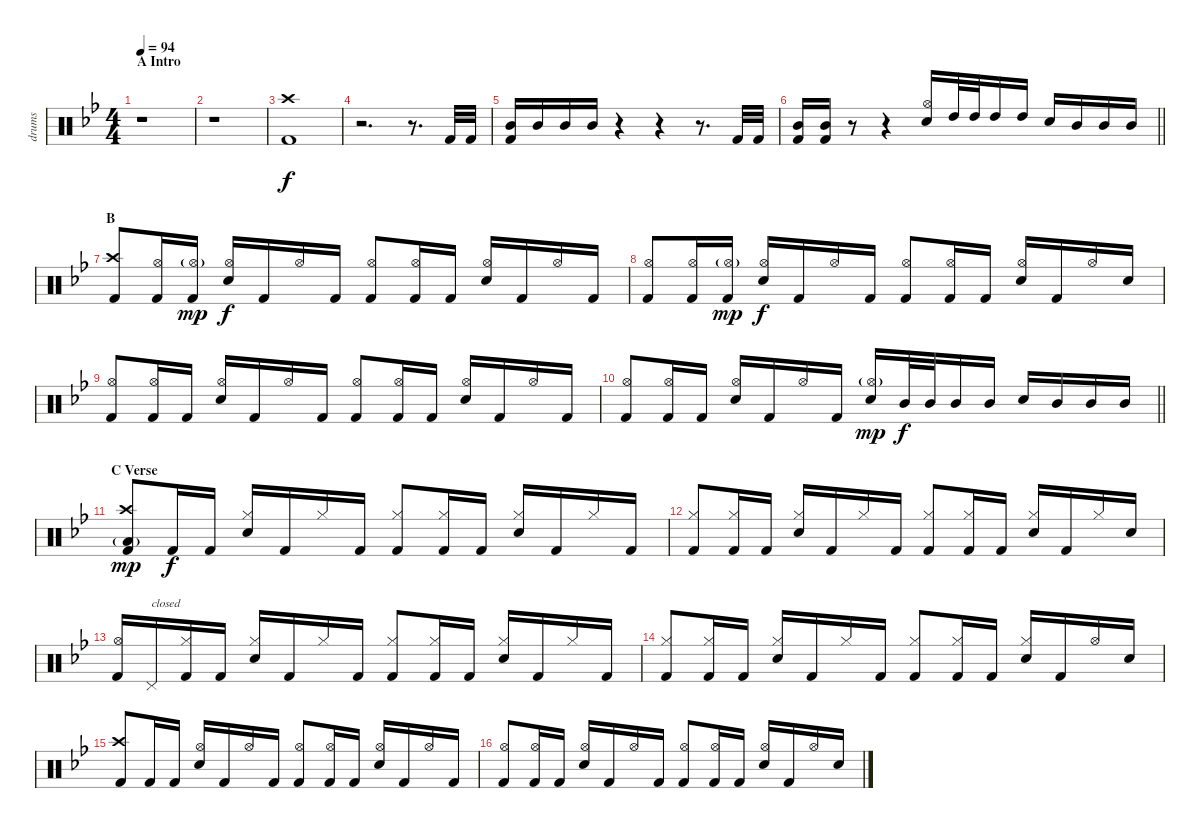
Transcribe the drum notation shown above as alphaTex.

\track ("drums" "drums") {instrument percussion}
\staff {score}
\articulation defaults
\ts (4 4)
\section ("" "A Intro")
\tempo 94
\clef neutral
\ks gminor
r.1{dy f} |
r.1 |
("Crash high (hit)" "Kick (hit) 2").1 |
r.2{d} r.8{d} "Kick (hit) 2".32 "Kick (hit) 2".32 |
("Mid Tom (hit)" "Kick (hit) 2").16{beam Up} "Mid Tom (hit)".16{beam Up} "Mid Tom (hit)".16{beam Up} "Mid Tom (hit)".16{beam Up} r.4 r.4 r.8{d} "Kick (hit) 2".32 "Kick (hit) 2".32 |
\barLineRight lightlight
("Mid Tom (hit)" "Kick (hit) 2").16{beam Up} ("Mid Tom (hit)" "Kick (hit) 2").16{beam Up} r.8 r.4 ("Snare (hit) 2" "Hi-Hat (open)").16{beam Up} "High Tom (hit)".32{beam Up} "High Tom (hit)".32{beam Up} "High Tom (hit)".16{beam Up} "High Tom (hit)".16{beam Up} "Snare (hit) 2".16{beam Up} "Mid Tom (hit)".16{beam Up} "Mid Tom (hit)".16{beam Up} "Mid Tom (hit)".16{beam Up} |
\section ("" "B")
("Crash high (hit)" "Kick (hit) 2").8{beam Up} ("Hi-Hat (open)" "Kick (hit) 2").16{beam Up} ("Hi-Hat (open)"{g} "Kick (hit) 2").16{dy mp beam Up} ("Snare (hit) 2" "Hi-Hat (open)").16{dy f beam Up} "Kick (hit) 2".16{beam Up} "Hi-Hat (open)".16{beam Up} "Kick (hit) 2".16{beam Up} ("Hi-Hat (open)" "Kick (hit) 2").8{beam Up} ("Hi-Hat (open)" "Kick (hit) 2").16{beam Up} "Kick (hit) 2".16{beam Up} ("Snare (hit) 2" "Hi-Hat (open)").16{beam Up} "Kick (hit) 2".16{beam Up} "Hi-Hat (open)".16{beam Up} "Kick (hit) 2".16{beam Up} |
("Hi-Hat (open)" "Kick (hit) 2").8{beam Up} ("Hi-Hat (open)" "Kick (hit) 2").16{beam Up} ("Hi-Hat (open)"{g} "Kick (hit) 2").16{dy mp beam Up} ("Snare (hit) 2" "Hi-Hat (open)").16{dy f beam Up} "Kick (hit) 2".16{beam Up} "Hi-Hat (open)".16{beam Up} "Kick (hit) 2".16{beam Up} ("Hi-Hat (open)" "Kick (hit) 2").8{beam Up} ("Hi-Hat (open)" "Kick (hit) 2").16{beam Up} "Kick (hit) 2".16{beam Up} ("Snare (hit) 2" "Hi-Hat (open)").16{beam Up} "Kick (hit) 2".16{beam Up} "Hi-Hat (open)".16{beam Up} "Snare (hit) 2".16{beam Up} |
("Hi-Hat (open)" "Kick (hit) 2").8{beam Up} ("Hi-Hat (open)" "Kick (hit) 2").16{beam Up} "Kick (hit) 2".16{beam Up} ("Snare (hit) 2" "Hi-Hat (open)").16{beam Up} "Kick (hit) 2".16{beam Up} "Hi-Hat (open)".16{beam Up} "Kick (hit) 2".16{beam Up} ("Hi-Hat (open)" "Kick (hit) 2").8{beam Up} ("Hi-Hat (open)" "Kick (hit) 2").16{beam Up} "Kick (hit) 2".16{beam Up} ("Snare (hit) 2" "Hi-Hat (open)").16{beam Up} "Kick (hit) 2".16{beam Up} "Hi-Hat (open)".16{beam Up} "Kick (hit) 2".16{beam Up} |
\barLineRight lightlight
("Hi-Hat (open)" "Kick (hit) 2").8{beam Up} ("Hi-Hat (open)" "Kick (hit) 2").16{beam Up} "Kick (hit) 2".16{beam Up} ("Snare (hit) 2" "Hi-Hat (open)").16{beam Up} "Kick (hit) 2".16{beam Up} "Hi-Hat (open)".16{beam Up} "Kick (hit) 2".16{beam Up} ("Snare (hit) 2" "Hi-Hat (open)"{g}).16{dy mp beam Up} "Mid Tom (hit)".32{dy f beam Up} "Mid Tom (hit)".32{beam Up} "Mid Tom (hit)".16{beam Up} "Mid Tom (hit)".16{beam Up} "Snare (hit) 2".16{beam Up} "Mid Tom (hit)".16{beam Up} "Mid Tom (hit)".16{beam Up} "Mid Tom (hit)".16{beam Up} |
\section ("" "C Verse")
("Crash high (hit)" "Low Tom (hit)"{g} "Kick (hit) 2").8{dy mp beam Up} "Kick (hit) 2".16{dy f beam Up} "Kick (hit) 2".16{beam Up} ("Snare (hit) 2" "Hi-Hat (closed)").16{beam Up} "Kick (hit) 2".16{beam Up} "Hi-Hat (closed)".16{beam Up} "Kick (hit) 2".16{beam Up} ("Hi-Hat (closed)" "Kick (hit) 2").8{beam Up} ("Hi-Hat (closed)" "Kick (hit) 2").16{beam Up} "Kick (hit) 2".16{beam Up} ("Snare (hit) 2" "Hi-Hat (closed)").16{beam Up} "Kick (hit) 2".16{beam Up} "Hi-Hat (closed)".16{beam Up} "Kick (hit) 2".16{beam Up} |
("Hi-Hat (closed)" "Kick (hit) 2").8{beam Up} ("Hi-Hat (closed)" "Kick (hit) 2").16{beam Up} "Kick (hit) 2".16{beam Up} ("Snare (hit) 2" "Hi-Hat (closed)").16{beam Up} "Kick (hit) 2".16{beam Up} "Hi-Hat (closed)".16{beam Up} "Kick (hit) 2".16{beam Up} ("Hi-Hat (closed)" "Kick (hit) 2").8{beam Up} ("Hi-Hat (closed)" "Kick (hit) 2").16{beam Up} "Kick (hit) 2".16{beam Up} ("Snare (hit) 2" "Hi-Hat (closed)").16{beam Up} "Kick (hit) 2".16{beam Up} "Hi-Hat (closed)".16{beam Up} "Snare (hit) 2".16{beam Up} |
("Hi-Hat (open)" "Kick (hit) 2").16{beam Up} "Pedal Hi-Hat (hit)".16{txt "closed" beam Up} ("Hi-Hat (closed)" "Kick (hit) 2").16{beam Up} "Kick (hit) 2".16{beam Up} ("Snare (hit) 2" "Hi-Hat (closed)").16{beam Up} "Kick (hit) 2".16{beam Up} "Hi-Hat (closed)".16{beam Up} "Kick (hit) 2".16{beam Up} ("Hi-Hat (closed)" "Kick (hit) 2").8{beam Up} ("Hi-Hat (closed)" "Kick (hit) 2").16{beam Up} "Kick (hit) 2".16{beam Up} ("Snare (hit) 2" "Hi-Hat (closed)").16{beam Up} "Kick (hit) 2".16{beam Up} "Hi-Hat (closed)".16{beam Up} "Kick (hit) 2".16{beam Up} |
("Hi-Hat (closed)" "Kick (hit) 2").8{beam Up} ("Hi-Hat (closed)" "Kick (hit) 2").16{beam Up} "Kick (hit) 2".16{beam Up} ("Snare (hit) 2" "Hi-Hat (closed)").16{beam Up} "Kick (hit) 2".16{beam Up} "Hi-Hat (closed)".16{beam Up} "Kick (hit) 2".16{beam Up} ("Hi-Hat (closed)" "Kick (hit) 2").8{beam Up} ("Hi-Hat (closed)" "Kick (hit) 2").16{beam Up} "Kick (hit) 2".16{beam Up} ("Snare (hit) 2" "Hi-Hat (closed)").16{beam Up} "Kick (hit) 2".16{beam Up} "Hi-Hat (open)".16{beam Up} "Snare (hit) 2".16{beam Up} |
("Crash high (hit)" "Kick (hit) 2").8{beam Up} "Kick (hit) 2".16{beam Up} "Kick (hit) 2".16{beam Up} ("Snare (hit) 2" "Hi-Hat (open)").16{beam Up} "Kick (hit) 2".16{beam Up} "Hi-Hat (open)".16{beam Up} "Kick (hit) 2".16{beam Up} ("Hi-Hat (open)" "Kick (hit) 2").8{beam Up} ("Hi-Hat (open)" "Kick (hit) 2").16{beam Up} "Kick (hit) 2".16{beam Up} ("Snare (hit) 2" "Hi-Hat (open)").16{beam Up} "Kick (hit) 2".16{beam Up} "Hi-Hat (open)".16{beam Up} "Kick (hit) 2".16{beam Up} |
("Hi-Hat (open)" "Kick (hit) 2").8{beam Up} ("Hi-Hat (open)" "Kick (hit) 2").16{beam Up} "Kick (hit) 2".16{beam Up} ("Snare (hit) 2" "Hi-Hat (open)").16{beam Up} "Kick (hit) 2".16{beam Up} "Hi-Hat (open)".16{beam Up} "Kick (hit) 2".16{beam Up} ("Hi-Hat (open)" "Kick (hit) 2").8{beam Up} ("Hi-Hat (open)" "Kick (hit) 2").16{beam Up} "Kick (hit) 2".16{beam Up} ("Snare (hit) 2" "Hi-Hat (open)").16{beam Up} "Kick (hit) 2".16{beam Up} "Hi-Hat (open)".16{beam Up} "Snare (hit) 2".16{beam Up}
